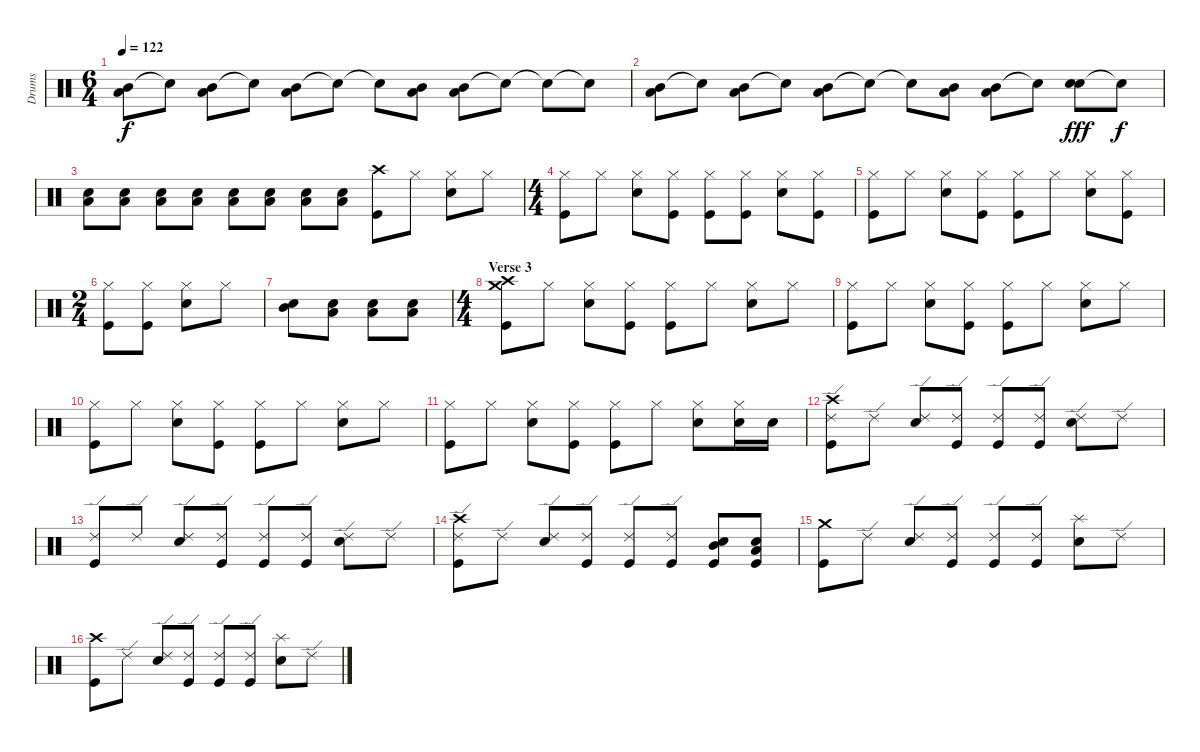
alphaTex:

\track ("Drums" "Drums") {instrument percussion}
\staff {score}
\articulation defaults
\ts (6 4)
\tempo 122
\clef neutral
\ks c
("Mid Tom (hit)" "Low Floor Tom (hit)").8{dy f} "Snare (hit) 2"{t}.8 ("Mid Tom (hit)" "Low Floor Tom (hit)").8 "Snare (hit)"{t}.8 ("Mid Tom (hit)" "Low Floor Tom (hit)").8 "Snare (hit)"{t}.8 "Snare (hit)"{t}.8 ("Mid Tom (hit)" "Low Floor Tom (hit)").8 ("Mid Tom (hit)" "Low Floor Tom (hit)").8 "Snare (hit)"{t}.8 "Snare (hit)"{t}.8 "Snare (hit)"{t}.8 |
("Mid Tom (hit)" "Low Floor Tom (hit)").8 "Snare (hit) 2"{t}.8 ("Mid Tom (hit)" "Low Floor Tom (hit)").8 "Snare (hit)"{t}.8 ("Mid Tom (hit)" "Low Floor Tom (hit)").8 "Snare (hit)"{t}.8 "Snare (hit)"{t}.8 ("Mid Tom (hit)" "Low Floor Tom (hit)").8 ("Mid Tom (hit)" "Low Floor Tom (hit)").8 "Snare (hit)"{t}.8 ("Snare (hit) 2" "Snare (hit) 2").8{dy fff} "Snare (hit)"{t}.8{dy f} |
("Low Tom (hit)" "Snare (hit) 2").8 ("Low Tom (hit)" "Snare (hit) 2").8 ("Low Tom (hit)" "Snare (hit) 2").8 ("Low Tom (hit)" "Snare (hit) 2").8 ("Low Tom (hit)" "Snare (hit) 2").8 ("Low Tom (hit)" "Snare (hit) 2").8 ("Low Tom (hit)" "Snare (hit) 2").8 ("Low Tom (hit)" "Snare (hit) 2").8 ("Crash high (hit)" "Kick (hit)").8 "Hi-Hat (closed)".8 ("Hi-Hat (closed)" "Snare (hit) 2").8 "Hi-Hat (closed)".8 |
\ts (4 4)
("Hi-Hat (closed)" "Kick (hit)").8 "Hi-Hat (closed)".8 ("Hi-Hat (closed)" "Snare (hit) 2").8 ("Hi-Hat (closed)" "Kick (hit)").8 ("Hi-Hat (closed)" "Kick (hit)").8 ("Hi-Hat (closed)" "Kick (hit)").8 ("Hi-Hat (closed)" "Snare (hit) 2").8 ("Hi-Hat (closed)" "Kick (hit)").8 |
("Hi-Hat (closed)" "Kick (hit)").8 "Hi-Hat (closed)".8 ("Hi-Hat (closed)" "Snare (hit) 2").8 ("Hi-Hat (closed)" "Kick (hit)").8 ("Hi-Hat (closed)" "Kick (hit)").8 "Hi-Hat (closed)".8 ("Hi-Hat (closed)" "Snare (hit) 2").8 ("Hi-Hat (closed)" "Kick (hit)").8 |
\ts (2 4)
("Hi-Hat (closed)" "Kick (hit)").8 ("Hi-Hat (closed)" "Kick (hit)").8 ("Hi-Hat (closed)" "Snare (hit) 2").8 "Hi-Hat (closed)".8 |
("Mid Tom (hit)" "Snare (hit) 2").8 ("Low Tom (hit)" "Snare (hit) 2").8 ("Low Floor Tom (hit)" "Snare (hit) 2").8 ("Low Floor Tom (hit)" "Snare (hit) 2").8 |
\ts (4 4)
\section ("" "Verse 3")
("Crash high (hit)" "Crash medium (hit)" "Kick (hit)").8 "Hi-Hat (closed)".8 ("Hi-Hat (closed)" "Snare (hit) 2").8 ("Hi-Hat (closed)" "Kick (hit)").8 ("Hi-Hat (closed)" "Kick (hit)").8 "Hi-Hat (closed)".8 ("Hi-Hat (closed)" "Snare (hit) 2").8 "Hi-Hat (closed)".8 |
("Hi-Hat (closed)" "Kick (hit)").8 "Hi-Hat (closed)".8 ("Hi-Hat (closed)" "Snare (hit) 2").8 ("Hi-Hat (closed)" "Kick (hit)").8 ("Hi-Hat (closed)" "Kick (hit)").8 "Hi-Hat (closed)".8 ("Hi-Hat (closed)" "Snare (hit) 2").8 "Hi-Hat (closed)".8 |
("Hi-Hat (closed)" "Kick (hit)").8 "Hi-Hat (closed)".8 ("Hi-Hat (closed)" "Snare (hit) 2").8 ("Hi-Hat (closed)" "Kick (hit)").8 ("Hi-Hat (closed)" "Kick (hit)").8 "Hi-Hat (closed)".8 ("Hi-Hat (closed)" "Snare (hit) 2").8 "Hi-Hat (closed)".8 |
("Hi-Hat (closed)" "Kick (hit)").8 "Hi-Hat (closed)".8 ("Hi-Hat (closed)" "Snare (hit) 2").8 ("Hi-Hat (closed)" "Kick (hit)").8 ("Hi-Hat (closed)" "Kick (hit)").8 "Hi-Hat (closed)".8 ("Hi-Hat (closed)" "Snare (hit) 2").8 ("Hi-Hat (closed)" "Snare (hit) 2").16 "Snare (hit) 2".16 |
("Ride (edge) 2" "Crash high (hit)" "Kick (hit)").8 "Ride (edge) 2".8 ("Ride (edge) 2" "Snare (hit) 2").8 ("Ride (edge) 2" "Kick (hit)").8 ("Ride (edge) 2" "Kick (hit)").8 ("Ride (edge) 2" "Kick (hit)").8 ("Ride (edge) 2" "Snare (hit) 2").8 "Ride (edge) 2".8 |
("Ride (edge) 2" "Kick (hit)").8 "Ride (edge) 2".8 ("Ride (edge) 2" "Snare (hit) 2").8 ("Ride (edge) 2" "Kick (hit)").8 ("Ride (edge) 2" "Kick (hit)").8 ("Ride (edge) 2" "Kick (hit)").8 ("Ride (edge) 2" "Snare (hit) 2").8 "Ride (edge) 2".8 |
("Ride (edge) 2" "Crash high (hit)" "Kick (hit)").8 "Ride (edge) 2".8 ("Ride (edge) 2" "Snare (hit) 2").8 ("Ride (edge) 2" "Kick (hit)").8 ("Ride (edge) 2" "Kick (hit)").8 ("Ride (edge) 2" "Kick (hit)").8 ("Mid Tom (hit)" "Snare (hit) 2" "Kick (hit)").8 ("Low Floor Tom (hit)" "Snare (hit) 2" "Kick (hit)").8 |
("Crash medium (hit)" "Kick (hit)").8 "Ride (edge) 2".8 ("Ride (edge) 2" "Snare (hit) 2").8 ("Ride (edge) 2" "Kick (hit)").8 ("Ride (edge) 2" "Kick (hit)").8 ("Ride (edge) 2" "Kick (hit)").8 ("Splash (hit)" "Snare (hit) 2").8 "Ride (edge) 2".8 |
("Crash high (hit)" "Kick (hit)").8 "Ride (edge) 2".8 ("Ride (edge) 2" "Snare (hit) 2").8 ("Ride (edge) 2" "Kick (hit)").8 ("Ride (edge) 2" "Kick (hit)").8 ("Ride (edge) 2" "Kick (hit)").8 ("Splash (hit)" "Snare (hit) 2").8 "Ride (edge) 2".8
